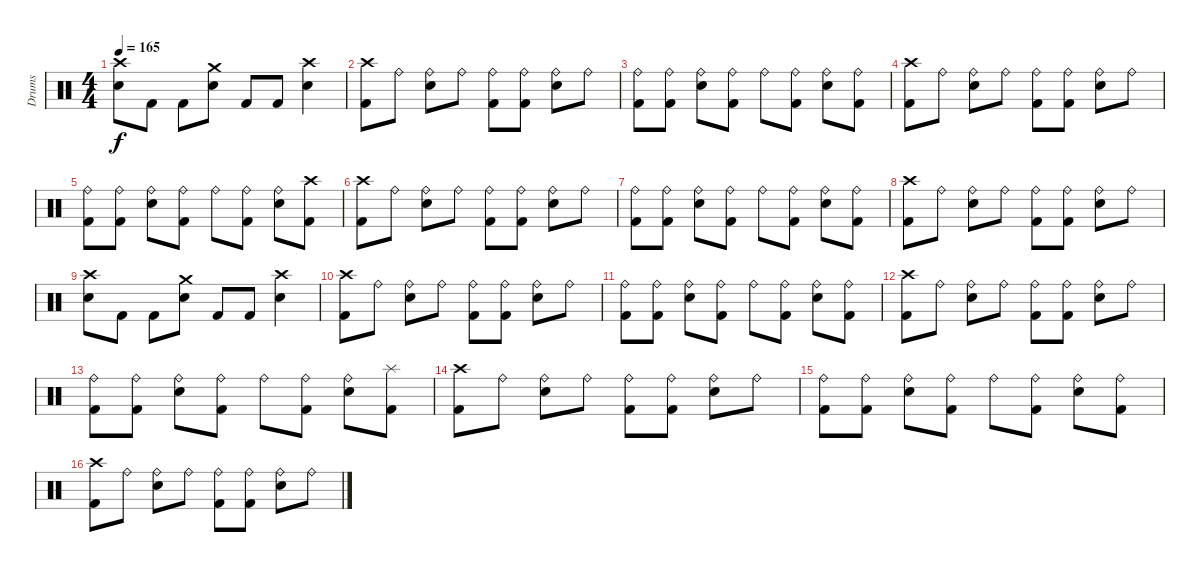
\track ("Drums" "Drums") {instrument percussion}
\staff {score}
\articulation defaults
\ts (4 4)
\tempo 165
\clef neutral
\ks c
("Crash high (hit)" "Snare (hit) 2").8{dy f} "Kick (hit) 2".8 "Kick (hit) 2".8 ("Crash medium (hit)" "Snare (hit) 2").8 "Kick (hit) 2".8 "Kick (hit) 2".8 ("Crash high (hit)" "Snare (hit) 2").4 |
("Crash high (hit)" "Kick (hit) 2").8 "Ride (bell)".8 ("Ride (bell)" "Snare (hit) 2").8 "Ride (bell)".8 ("Ride (bell)" "Kick (hit) 2").8 ("Ride (bell)" "Kick (hit) 2").8 ("Ride (bell)" "Snare (hit) 2").8 "Ride (bell)".8 |
("Ride (bell)" "Kick (hit) 2").8 ("Ride (bell)" "Kick (hit) 2").8 ("Ride (bell)" "Snare (hit) 2").8 ("Ride (bell)" "Kick (hit) 2").8 "Ride (bell)".8 ("Ride (bell)" "Kick (hit) 2").8 ("Ride (bell)" "Snare (hit) 2").8 ("Ride (bell)" "Kick (hit) 2").8 |
("Crash high (hit)" "Kick (hit) 2").8 "Ride (bell)".8 ("Ride (bell)" "Snare (hit) 2").8 "Ride (bell)".8 ("Ride (bell)" "Kick (hit) 2").8 ("Ride (bell)" "Kick (hit) 2").8 ("Ride (bell)" "Snare (hit) 2").8 "Ride (bell)".8 |
("Ride (bell)" "Kick (hit) 2").8 ("Ride (bell)" "Kick (hit) 2").8 ("Ride (bell)" "Snare (hit) 2").8 ("Ride (bell)" "Kick (hit) 2").8 "Ride (bell)".8 ("Ride (bell)" "Kick (hit) 2").8 ("Ride (bell)" "Snare (hit) 2").8 ("Crash high (hit)" "Kick (hit) 2").8 |
("Crash high (hit)" "Kick (hit) 2").8 "Ride (bell)".8 ("Ride (bell)" "Snare (hit) 2").8 "Ride (bell)".8 ("Ride (bell)" "Kick (hit) 2").8 ("Ride (bell)" "Kick (hit) 2").8 ("Ride (bell)" "Snare (hit) 2").8 "Ride (bell)".8 |
("Ride (bell)" "Kick (hit) 2").8 ("Ride (bell)" "Kick (hit) 2").8 ("Ride (bell)" "Snare (hit) 2").8 ("Ride (bell)" "Kick (hit) 2").8 "Ride (bell)".8 ("Ride (bell)" "Kick (hit) 2").8 ("Ride (bell)" "Snare (hit) 2").8 ("Ride (bell)" "Kick (hit) 2").8 |
("Crash high (hit)" "Kick (hit) 2").8 "Ride (bell)".8 ("Ride (bell)" "Snare (hit) 2").8 "Ride (bell)".8 ("Ride (bell)" "Kick (hit) 2").8 ("Ride (bell)" "Kick (hit) 2").8 ("Ride (bell)" "Snare (hit) 2").8 "Ride (bell)".8 |
("Crash high (hit)" "Snare (hit) 2").8 "Kick (hit) 2".8 "Kick (hit) 2".8 ("Crash medium (hit)" "Snare (hit) 2").8 "Kick (hit) 2".8 "Kick (hit) 2".8 ("Crash high (hit)" "Snare (hit) 2").4 |
("Crash high (hit)" "Kick (hit) 2").8 "Ride (bell)".8 ("Ride (bell)" "Snare (hit) 2").8 "Ride (bell)".8 ("Ride (bell)" "Kick (hit) 2").8 ("Ride (bell)" "Kick (hit) 2").8 ("Ride (bell)" "Snare (hit) 2").8 "Ride (bell)".8 |
("Ride (bell)" "Kick (hit) 2").8 ("Ride (bell)" "Kick (hit) 2").8 ("Ride (bell)" "Snare (hit) 2").8 ("Ride (bell)" "Kick (hit) 2").8 "Ride (bell)".8 ("Ride (bell)" "Kick (hit) 2").8 ("Ride (bell)" "Snare (hit) 2").8 ("Ride (bell)" "Kick (hit) 2").8 |
("Crash high (hit)" "Kick (hit) 2").8 "Ride (bell)".8 ("Ride (bell)" "Snare (hit) 2").8 "Ride (bell)".8 ("Ride (bell)" "Kick (hit) 2").8 ("Ride (bell)" "Kick (hit) 2").8 ("Ride (bell)" "Snare (hit) 2").8 "Ride (bell)".8 |
("Ride (bell)" "Kick (hit) 2").8 ("Ride (bell)" "Kick (hit) 2").8 ("Ride (bell)" "Snare (hit) 2").8 ("Ride (bell)" "Kick (hit) 2").8 "Ride (bell)".8 ("Ride (bell)" "Kick (hit) 2").8 ("Ride (bell)" "Snare (hit) 2").8 ("Splash (hit)" "Kick (hit) 2").8 |
("Crash high (hit)" "Kick (hit) 2").8 "Ride (bell)".8 ("Ride (bell)" "Snare (hit) 2").8 "Ride (bell)".8 ("Ride (bell)" "Kick (hit) 2").8 ("Ride (bell)" "Kick (hit) 2").8 ("Ride (bell)" "Snare (hit) 2").8 "Ride (bell)".8 |
("Ride (bell)" "Kick (hit) 2").8 ("Ride (bell)" "Kick (hit) 2").8 ("Ride (bell)" "Snare (hit) 2").8 ("Ride (bell)" "Kick (hit) 2").8 "Ride (bell)".8 ("Ride (bell)" "Kick (hit) 2").8 ("Ride (bell)" "Snare (hit) 2").8 ("Ride (bell)" "Kick (hit) 2").8 |
("Crash high (hit)" "Kick (hit) 2").8 "Ride (bell)".8 ("Ride (bell)" "Snare (hit) 2").8 "Ride (bell)".8 ("Ride (bell)" "Kick (hit) 2").8 ("Ride (bell)" "Kick (hit) 2").8 ("Ride (bell)" "Snare (hit) 2").8 "Ride (bell)".8
